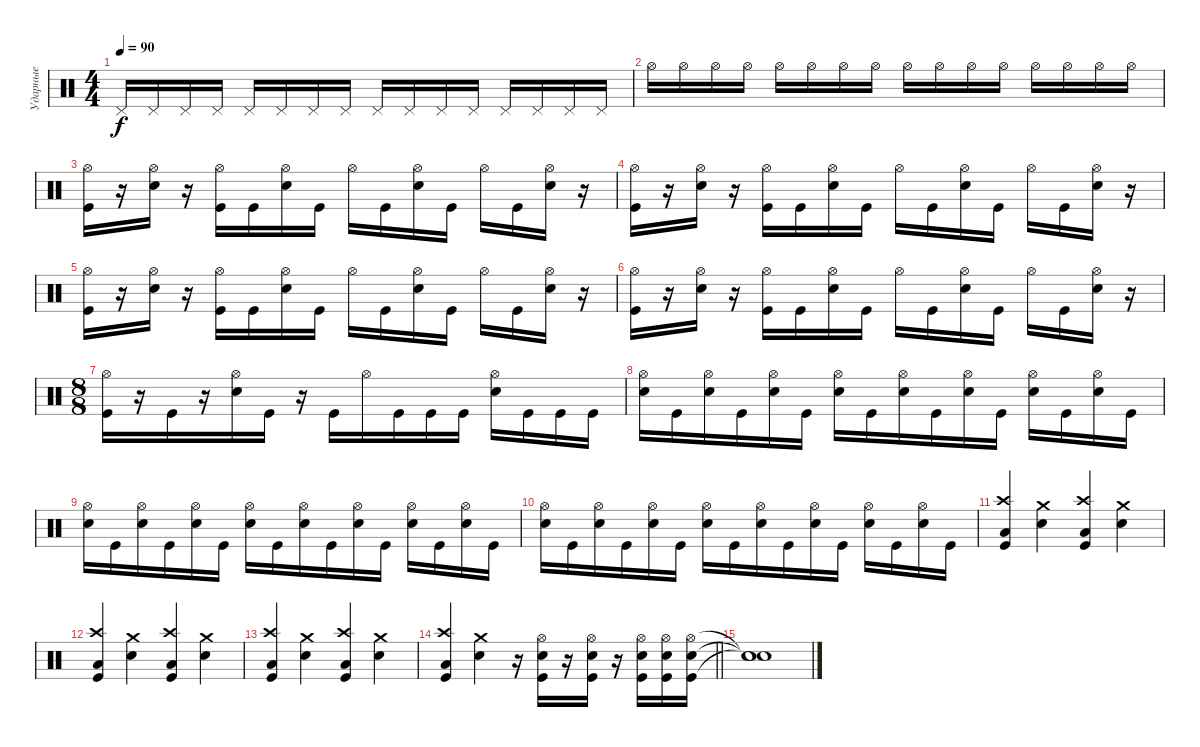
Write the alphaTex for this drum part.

\track ("Ударные" "Ударные") {instrument percussion}
\staff {score}
\articulation defaults
\ts (4 4)
\tempo 90
\clef neutral
\ks c "Pedal Hi-Hat (hit)".16{dy f} "Pedal Hi-Hat (hit)".16 "Pedal Hi-Hat (hit)".16 "Pedal Hi-Hat (hit)".16 "Pedal Hi-Hat (hit)".16 "Pedal Hi-Hat (hit)".16 "Pedal Hi-Hat (hit)".16 "Pedal Hi-Hat (hit)".16 "Pedal Hi-Hat (hit)".16 "Pedal Hi-Hat (hit)".16 "Pedal Hi-Hat (hit)".16 "Pedal Hi-Hat (hit)".16 "Pedal Hi-Hat (hit)".16 "Pedal Hi-Hat (hit)".16 "Pedal Hi-Hat (hit)".16 "Pedal Hi-Hat (hit)".16
|
"Hi-Hat (open)".16 "Hi-Hat (open)".16 "Hi-Hat (open)".16 "Hi-Hat (open)".16 "Hi-Hat (open)".16 "Hi-Hat (open)".16 "Hi-Hat (open)".16 "Hi-Hat (open)".16 "Hi-Hat (open)".16 "Hi-Hat (open)".16 "Hi-Hat (open)".16 "Hi-Hat (open)".16 "Hi-Hat (open)".16 "Hi-Hat (open)".16 "Hi-Hat (open)".16 "Hi-Hat (open)".16 |
("Hi-Hat (open)" "Kick (hit)").16 r.16 ("Hi-Hat (open)" "Electric Snare (hit)").16 r.16 ("Hi-Hat (open)" "Kick (hit)").16 "Kick (hit)".16 ("Hi-Hat (open)" "Electric Snare (hit)").16 "Kick (hit)".16 "Hi-Hat (open)".16 "Kick (hit)".16 ("Hi-Hat (open)" "Electric Snare (hit)").16 "Kick (hit)".16 "Hi-Hat (open)".16 "Kick (hit)".16 ("Hi-Hat (open)" "Electric Snare (hit)").16 r.16 |
("Hi-Hat (open)" "Kick (hit)").16 r.16 ("Hi-Hat (open)" "Electric Snare (hit)").16 r.16 ("Hi-Hat (open)" "Kick (hit)").16 "Kick (hit)".16 ("Hi-Hat (open)" "Electric Snare (hit)").16 "Kick (hit)".16 "Hi-Hat (open)".16 "Kick (hit)".16 ("Hi-Hat (open)" "Electric Snare (hit)").16 "Kick (hit)".16 "Hi-Hat (open)".16 "Kick (hit)".16 ("Hi-Hat (open)" "Electric Snare (hit)").16 r.16 |
("Hi-Hat (open)" "Kick (hit)").16 r.16 ("Hi-Hat (open)" "Electric Snare (hit)").16 r.16 ("Hi-Hat (open)" "Kick (hit)").16 "Kick (hit)".16 ("Hi-Hat (open)" "Electric Snare (hit)").16 "Kick (hit)".16 "Hi-Hat (open)".16 "Kick (hit)".16 ("Hi-Hat (open)" "Electric Snare (hit)").16 "Kick (hit)".16 "Hi-Hat (open)".16 "Kick (hit)".16 ("Hi-Hat (open)" "Electric Snare (hit)").16 r.16 |
("Hi-Hat (open)" "Kick (hit)").16 r.16 ("Hi-Hat (open)" "Electric Snare (hit)").16 r.16 ("Hi-Hat (open)" "Kick (hit)").16 "Kick (hit)".16 ("Hi-Hat (open)" "Electric Snare (hit)").16 "Kick (hit)".16 "Hi-Hat (open)".16 "Kick (hit)".16 ("Hi-Hat (open)" "Electric Snare (hit)").16 "Kick (hit)".16 "Hi-Hat (open)".16 "Kick (hit)".16 ("Hi-Hat (open)" "Electric Snare (hit)").16 r.16 |
\ts (8 8)
("Hi-Hat (open)" "Kick (hit)").16 r.16 "Kick (hit)".16 r.16 ("Hi-Hat (open)" "Electric Snare (hit)").16 "Kick (hit)".16 r.16 "Kick (hit)".16 "Hi-Hat (open)".16 "Kick (hit)".16 "Kick (hit)".16 "Kick (hit)".16 ("Hi-Hat (open)" "Electric Snare (hit)").16 "Kick (hit)".16 "Kick (hit)".16 "Kick (hit)".16 |
("Hi-Hat (open)" "Electric Snare (hit)").16 "Kick (hit)".16 ("Hi-Hat (open)" "Electric Snare (hit)").16 "Kick (hit)".16 ("Hi-Hat (open)" "Electric Snare (hit)").16 "Kick (hit)".16 ("Hi-Hat (open)" "Electric Snare (hit)").16 "Kick (hit)".16 ("Hi-Hat (open)" "Electric Snare (hit)").16 "Kick (hit)".16 ("Hi-Hat (open)" "Electric Snare (hit)").16 "Kick (hit)".16 ("Hi-Hat (open)" "Electric Snare (hit)").16 "Kick (hit)".16 ("Hi-Hat (open)" "Electric Snare (hit)").16 "Kick (hit)".16 |
("Hi-Hat (open)" "Electric Snare (hit)").16 "Kick (hit)".16 ("Hi-Hat (open)" "Electric Snare (hit)").16 "Kick (hit)".16 ("Hi-Hat (open)" "Electric Snare (hit)").16 "Kick (hit)".16 ("Hi-Hat (open)" "Electric Snare (hit)").16 "Kick (hit)".16 ("Hi-Hat (open)" "Electric Snare (hit)").16 "Kick (hit)".16 ("Hi-Hat (open)" "Electric Snare (hit)").16 "Kick (hit)".16 ("Hi-Hat (open)" "Electric Snare (hit)").16 "Kick (hit)".16 ("Hi-Hat (open)" "Electric Snare (hit)").16 "Kick (hit)".16 |
("Hi-Hat (open)" "Electric Snare (hit)").16 "Kick (hit)".16 ("Hi-Hat (open)" "Electric Snare (hit)").16 "Kick (hit)".16 ("Hi-Hat (open)" "Electric Snare (hit)").16 "Kick (hit)".16 ("Hi-Hat (open)" "Electric Snare (hit)").16 "Kick (hit)".16 ("Hi-Hat (open)" "Electric Snare (hit)").16 "Kick (hit)".16 ("Hi-Hat (open)" "Electric Snare (hit)").16 "Kick (hit)".16 ("Hi-Hat (open)" "Electric Snare (hit)").16 "Kick (hit)".16 ("Hi-Hat (open)" "Electric Snare (hit)").16 "Kick (hit)".16 |
("Crash high (hit)" "Kick (hit)" "Low Tom (hit)").4 ("Crash medium (hit)" "Electric Snare (hit)").4 ("Crash high (hit)" "Kick (hit)" "Low Floor Tom (hit)").4 ("Crash medium (hit)" "Electric Snare (hit)").4 |
("Crash high (hit)" "Kick (hit)" "Low Tom (hit)").4 ("Crash medium (hit)" "Electric Snare (hit)").4 ("Crash high (hit)" "Kick (hit)" "Low Floor Tom (hit)").4 ("Crash medium (hit)" "Electric Snare (hit)").4 |
("Crash high (hit)" "Kick (hit)" "Low Tom (hit)").4 ("Crash medium (hit)" "Electric Snare (hit)").4 ("Crash high (hit)" "Kick (hit)" "Low Floor Tom (hit)").4 ("Crash medium (hit)" "Electric Snare (hit)").4 |
\barLineRight lightlight
("Crash high (hit)" "Kick (hit)" "Low Tom (hit)").4 ("Crash medium (hit)" "Electric Snare (hit)").4 r.16 ("Hi-Hat (open)" "Electric Snare (hit)" "Kick (hit)").16 r.16 ("Hi-Hat (open)" "Electric Snare (hit)" "Kick (hit)").16 r.16 ("Hi-Hat (open)" "Electric Snare (hit)" "Kick (hit)").16 ("Hi-Hat (open)" "Electric Snare (hit)" "Kick (hit)").16 ("Hi-Hat (open)" "Electric Snare (hit)" "Kick (hit)").16 |
("Snare (hit)"{t} "Snare (hit)"{t} "Snare (hit)"{t}).1
